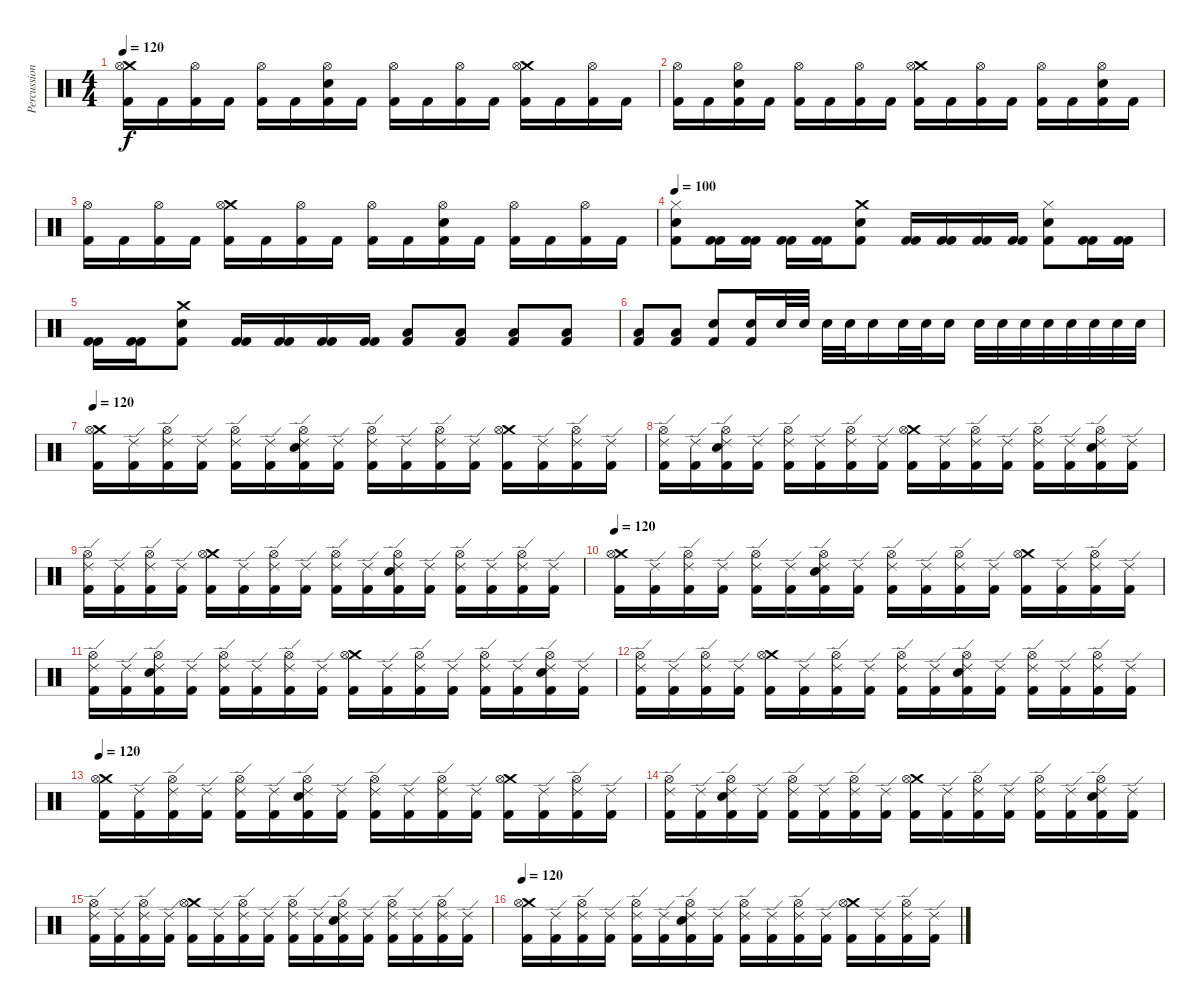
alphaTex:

\track ("Percussion" "Percussion") {instrument percussion}
\staff {score}
\articulation defaults
\ts (4 4)
\tempo 120
\clef neutral
\ks c
("Crash medium (hit)" "Hi-Hat (open)" "Kick (hit) 2").16{dy f} "Kick (hit) 2".16 ("Hi-Hat (open)" "Kick (hit) 2").16 "Kick (hit) 2".16 ("Hi-Hat (open)" "Kick (hit) 2").16 "Kick (hit) 2".16 ("Hi-Hat (open)" "Electric Snare (hit)" "Kick (hit) 2").16 "Kick (hit) 2".16 ("Hi-Hat (open)" "Kick (hit) 2").16 "Kick (hit) 2".16 ("Hi-Hat (open)" "Kick (hit) 2").16 "Kick (hit) 2".16 ("Crash medium (hit)" "Hi-Hat (open)" "Kick (hit) 2").16 "Kick (hit) 2".16 ("Hi-Hat (open)" "Kick (hit) 2").16 "Kick (hit) 2".16 |
("Hi-Hat (open)" "Kick (hit) 2").16 "Kick (hit) 2".16 ("Hi-Hat (open)" "Electric Snare (hit)" "Kick (hit) 2").16 "Kick (hit) 2".16 ("Hi-Hat (open)" "Kick (hit) 2").16 "Kick (hit) 2".16 ("Hi-Hat (open)" "Kick (hit) 2").16 "Kick (hit) 2".16 ("Crash medium (hit)" "Hi-Hat (open)" "Kick (hit) 2").16 "Kick (hit) 2".16 ("Hi-Hat (open)" "Kick (hit) 2").16 "Kick (hit) 2".16 ("Hi-Hat (open)" "Kick (hit) 2").16 "Kick (hit) 2".16 ("Hi-Hat (open)" "Electric Snare (hit)" "Kick (hit) 2").16 "Kick (hit) 2".16 |
("Hi-Hat (open)" "Kick (hit) 2").16 "Kick (hit) 2".16 ("Hi-Hat (open)" "Kick (hit) 2").16 "Kick (hit) 2".16 ("Crash medium (hit)" "Hi-Hat (open)" "Kick (hit) 2").16 "Kick (hit) 2".16 ("Hi-Hat (open)" "Kick (hit) 2").16 "Kick (hit) 2".16 ("Hi-Hat (open)" "Kick (hit) 2").16 "Kick (hit) 2".16 ("Hi-Hat (open)" "Electric Snare (hit)" "Kick (hit) 2").16 "Kick (hit) 2".16 ("Hi-Hat (open)" "Kick (hit) 2").16 "Kick (hit) 2".16 ("Hi-Hat (open)" "Kick (hit) 2").16 "Kick (hit) 2".16 |
\tempo 100
("Hi-Hat (closed)" "Electric Snare (hit)" "Kick (hit) 2").8 ("Kick (hit) 2" "Kick (hit) 2").16 ("Kick (hit) 2" "Kick (hit) 2").16 ("Kick (hit) 2" "Kick (hit) 2").16 ("Kick (hit) 2" "Kick (hit) 2").16 ("Crash medium (hit)" "Electric Snare (hit)" "Kick (hit) 2").8 ("Kick (hit) 2" "Kick (hit) 2").16 ("Kick (hit) 2" "Kick (hit) 2").16 ("Kick (hit) 2" "Kick (hit) 2").16 ("Kick (hit) 2" "Kick (hit) 2").16 ("Hi-Hat (closed)" "Electric Snare (hit)" "Kick (hit) 2").8 ("Kick (hit) 2" "Kick (hit) 2").16 ("Kick (hit) 2" "Kick (hit) 2").16 |
("Kick (hit) 2" "Kick (hit) 2").16 ("Kick (hit) 2" "Kick (hit) 2").16 ("Crash medium (hit)" "Electric Snare (hit)" "Kick (hit) 2").8 ("Kick (hit) 2" "Kick (hit) 2").16 ("Kick (hit) 2" "Kick (hit) 2").16 ("Kick (hit) 2" "Kick (hit) 2").16 ("Kick (hit) 2" "Kick (hit) 2").16 ("Low Floor Tom (hit)" "Kick (hit) 2").8 ("Low Floor Tom (hit)" "Kick (hit) 2").8 ("Low Floor Tom (hit)" "Kick (hit) 2").8 ("Low Floor Tom (hit)" "Kick (hit) 2").8 |
("Low Floor Tom (hit)" "Kick (hit) 2").8 ("Low Floor Tom (hit)" "Kick (hit) 2").8 ("Electric Snare (hit)" "Kick (hit) 2").8 ("Electric Snare (hit)" "Kick (hit) 2").16 "Electric Snare (hit)".32 "Electric Snare (hit)".32 "Electric Snare (hit)".32 "Electric Snare (hit)".32 "Electric Snare (hit)".16 "Electric Snare (hit)".32 "Electric Snare (hit)".32 "Electric Snare (hit)".16 "Electric Snare (hit)".32 "Electric Snare (hit)".32 "Electric Snare (hit)".32 "Electric Snare (hit)".32 "Electric Snare (hit)".32 "Electric Snare (hit)".32 "Electric Snare (hit)".32 "Electric Snare (hit)".32 |
\tempo 120
("Crash medium (hit)" "Hi-Hat (open)" "Kick (hit) 2").16 ("Ride (edge) 2" "Kick (hit) 2").16 ("Ride (edge) 2" "Hi-Hat (open)" "Kick (hit) 2").16 ("Ride (edge) 2" "Kick (hit) 2").16 ("Ride (edge) 2" "Hi-Hat (open)" "Kick (hit) 2").16 ("Ride (edge) 2" "Kick (hit) 2").16 ("Ride (edge) 2" "Hi-Hat (open)" "Electric Snare (hit)" "Kick (hit) 2").16 ("Ride (edge) 2" "Kick (hit) 2").16 ("Ride (edge) 2" "Hi-Hat (open)" "Kick (hit) 2").16 ("Ride (edge) 2" "Kick (hit) 2").16 ("Ride (edge) 2" "Hi-Hat (open)" "Kick (hit) 2").16 ("Ride (edge) 2" "Kick (hit) 2").16 ("Crash medium (hit)" "Hi-Hat (open)" "Kick (hit) 2").16 ("Ride (edge) 2" "Kick (hit) 2").16 ("Ride (edge) 2" "Hi-Hat (open)" "Kick (hit) 2").16 ("Ride (edge) 2" "Kick (hit) 2").16 |
("Ride (edge) 2" "Hi-Hat (open)" "Kick (hit) 2").16 ("Ride (edge) 2" "Kick (hit) 2").16 ("Ride (edge) 2" "Hi-Hat (open)" "Electric Snare (hit)" "Kick (hit) 2").16 ("Ride (edge) 2" "Kick (hit) 2").16 ("Ride (edge) 2" "Hi-Hat (open)" "Kick (hit) 2").16 ("Ride (edge) 2" "Kick (hit) 2").16 ("Ride (edge) 2" "Hi-Hat (open)" "Kick (hit) 2").16 ("Ride (edge) 2" "Kick (hit) 2").16 ("Crash medium (hit)" "Hi-Hat (open)" "Kick (hit) 2").16 ("Ride (edge) 2" "Kick (hit) 2").16 ("Ride (edge) 2" "Hi-Hat (open)" "Kick (hit) 2").16 ("Ride (edge) 2" "Kick (hit) 2").16 ("Ride (edge) 2" "Hi-Hat (open)" "Kick (hit) 2").16 ("Ride (edge) 2" "Kick (hit) 2").16 ("Ride (edge) 2" "Hi-Hat (open)" "Electric Snare (hit)" "Kick (hit) 2").16 ("Ride (edge) 2" "Kick (hit) 2").16 |
("Ride (edge) 2" "Hi-Hat (open)" "Kick (hit) 2").16 ("Ride (edge) 2" "Kick (hit) 2").16 ("Ride (edge) 2" "Hi-Hat (open)" "Kick (hit) 2").16 ("Ride (edge) 2" "Kick (hit) 2").16 ("Crash medium (hit)" "Hi-Hat (open)" "Kick (hit) 2").16 ("Ride (edge) 2" "Kick (hit) 2").16 ("Ride (edge) 2" "Hi-Hat (open)" "Kick (hit) 2").16 ("Ride (edge) 2" "Kick (hit) 2").16 ("Ride (edge) 2" "Hi-Hat (open)" "Kick (hit) 2").16 ("Ride (edge) 2" "Kick (hit) 2").16 ("Ride (edge) 2" "Hi-Hat (open)" "Electric Snare (hit)" "Kick (hit) 2").16 ("Ride (edge) 2" "Kick (hit) 2").16 ("Ride (edge) 2" "Hi-Hat (open)" "Kick (hit) 2").16 ("Ride (edge) 2" "Kick (hit) 2").16 ("Ride (edge) 2" "Hi-Hat (open)" "Kick (hit) 2").16 ("Ride (edge) 2" "Kick (hit) 2").16 |
\tempo 120
("Crash medium (hit)" "Hi-Hat (open)" "Kick (hit) 2").16 ("Ride (edge) 2" "Kick (hit) 2").16 ("Ride (edge) 2" "Hi-Hat (open)" "Kick (hit) 2").16 ("Ride (edge) 2" "Kick (hit) 2").16 ("Ride (edge) 2" "Hi-Hat (open)" "Kick (hit) 2").16 ("Ride (edge) 2" "Kick (hit) 2").16 ("Ride (edge) 2" "Hi-Hat (open)" "Electric Snare (hit)" "Kick (hit) 2").16 ("Ride (edge) 2" "Kick (hit) 2").16 ("Ride (edge) 2" "Hi-Hat (open)" "Kick (hit) 2").16 ("Ride (edge) 2" "Kick (hit) 2").16 ("Ride (edge) 2" "Hi-Hat (open)" "Kick (hit) 2").16 ("Ride (edge) 2" "Kick (hit) 2").16 ("Crash medium (hit)" "Hi-Hat (open)" "Kick (hit) 2").16 ("Ride (edge) 2" "Kick (hit) 2").16 ("Ride (edge) 2" "Hi-Hat (open)" "Kick (hit) 2").16 ("Ride (edge) 2" "Kick (hit) 2").16 |
("Ride (edge) 2" "Hi-Hat (open)" "Kick (hit) 2").16 ("Ride (edge) 2" "Kick (hit) 2").16 ("Ride (edge) 2" "Hi-Hat (open)" "Electric Snare (hit)" "Kick (hit) 2").16 ("Ride (edge) 2" "Kick (hit) 2").16 ("Ride (edge) 2" "Hi-Hat (open)" "Kick (hit) 2").16 ("Ride (edge) 2" "Kick (hit) 2").16 ("Ride (edge) 2" "Hi-Hat (open)" "Kick (hit) 2").16 ("Ride (edge) 2" "Kick (hit) 2").16 ("Crash medium (hit)" "Hi-Hat (open)" "Kick (hit) 2").16 ("Ride (edge) 2" "Kick (hit) 2").16 ("Ride (edge) 2" "Hi-Hat (open)" "Kick (hit) 2").16 ("Ride (edge) 2" "Kick (hit) 2").16 ("Ride (edge) 2" "Hi-Hat (open)" "Kick (hit) 2").16 ("Ride (edge) 2" "Kick (hit) 2").16 ("Ride (edge) 2" "Hi-Hat (open)" "Electric Snare (hit)" "Kick (hit) 2").16 ("Ride (edge) 2" "Kick (hit) 2").16 |
("Ride (edge) 2" "Hi-Hat (open)" "Kick (hit) 2").16 ("Ride (edge) 2" "Kick (hit) 2").16 ("Ride (edge) 2" "Hi-Hat (open)" "Kick (hit) 2").16 ("Ride (edge) 2" "Kick (hit) 2").16 ("Crash medium (hit)" "Hi-Hat (open)" "Kick (hit) 2").16 ("Ride (edge) 2" "Kick (hit) 2").16 ("Ride (edge) 2" "Hi-Hat (open)" "Kick (hit) 2").16 ("Ride (edge) 2" "Kick (hit) 2").16 ("Ride (edge) 2" "Hi-Hat (open)" "Kick (hit) 2").16 ("Ride (edge) 2" "Kick (hit) 2").16 ("Ride (edge) 2" "Hi-Hat (open)" "Electric Snare (hit)" "Kick (hit) 2").16 ("Ride (edge) 2" "Kick (hit) 2").16 ("Ride (edge) 2" "Hi-Hat (open)" "Kick (hit) 2").16 ("Ride (edge) 2" "Kick (hit) 2").16 ("Ride (edge) 2" "Hi-Hat (open)" "Kick (hit) 2").16 ("Ride (edge) 2" "Kick (hit) 2").16 |
\tempo 120
("Crash medium (hit)" "Hi-Hat (open)" "Kick (hit) 2").16 ("Ride (edge) 2" "Kick (hit) 2").16 ("Ride (edge) 2" "Hi-Hat (open)" "Kick (hit) 2").16 ("Ride (edge) 2" "Kick (hit) 2").16 ("Ride (edge) 2" "Hi-Hat (open)" "Kick (hit) 2").16 ("Ride (edge) 2" "Kick (hit) 2").16 ("Ride (edge) 2" "Hi-Hat (open)" "Electric Snare (hit)" "Kick (hit) 2").16 ("Ride (edge) 2" "Kick (hit) 2").16 ("Ride (edge) 2" "Hi-Hat (open)" "Kick (hit) 2").16 ("Ride (edge) 2" "Kick (hit) 2").16 ("Ride (edge) 2" "Hi-Hat (open)" "Kick (hit) 2").16 ("Ride (edge) 2" "Kick (hit) 2").16 ("Crash medium (hit)" "Hi-Hat (open)" "Kick (hit) 2").16 ("Ride (edge) 2" "Kick (hit) 2").16 ("Ride (edge) 2" "Hi-Hat (open)" "Kick (hit) 2").16 ("Ride (edge) 2" "Kick (hit) 2").16 |
("Ride (edge) 2" "Hi-Hat (open)" "Kick (hit) 2").16 ("Ride (edge) 2" "Kick (hit) 2").16 ("Ride (edge) 2" "Hi-Hat (open)" "Electric Snare (hit)" "Kick (hit) 2").16 ("Ride (edge) 2" "Kick (hit) 2").16 ("Ride (edge) 2" "Hi-Hat (open)" "Kick (hit) 2").16 ("Ride (edge) 2" "Kick (hit) 2").16 ("Ride (edge) 2" "Hi-Hat (open)" "Kick (hit) 2").16 ("Ride (edge) 2" "Kick (hit) 2").16 ("Crash medium (hit)" "Hi-Hat (open)" "Kick (hit) 2").16 ("Ride (edge) 2" "Kick (hit) 2").16 ("Ride (edge) 2" "Hi-Hat (open)" "Kick (hit) 2").16 ("Ride (edge) 2" "Kick (hit) 2").16 ("Ride (edge) 2" "Hi-Hat (open)" "Kick (hit) 2").16 ("Ride (edge) 2" "Kick (hit) 2").16 ("Ride (edge) 2" "Hi-Hat (open)" "Electric Snare (hit)" "Kick (hit) 2").16 ("Ride (edge) 2" "Kick (hit) 2").16 |
("Ride (edge) 2" "Hi-Hat (open)" "Kick (hit) 2").16 ("Ride (edge) 2" "Kick (hit) 2").16 ("Ride (edge) 2" "Hi-Hat (open)" "Kick (hit) 2").16 ("Ride (edge) 2" "Kick (hit) 2").16 ("Crash medium (hit)" "Hi-Hat (open)" "Kick (hit) 2").16 ("Ride (edge) 2" "Kick (hit) 2").16 ("Ride (edge) 2" "Hi-Hat (open)" "Kick (hit) 2").16 ("Ride (edge) 2" "Kick (hit) 2").16 ("Ride (edge) 2" "Hi-Hat (open)" "Kick (hit) 2").16 ("Ride (edge) 2" "Kick (hit) 2").16 ("Ride (edge) 2" "Hi-Hat (open)" "Electric Snare (hit)" "Kick (hit) 2").16 ("Ride (edge) 2" "Kick (hit) 2").16 ("Ride (edge) 2" "Hi-Hat (open)" "Kick (hit) 2").16 ("Ride (edge) 2" "Kick (hit) 2").16 ("Ride (edge) 2" "Hi-Hat (open)" "Kick (hit) 2").16 ("Ride (edge) 2" "Kick (hit) 2").16 |
\tempo 120
("Crash medium (hit)" "Hi-Hat (open)" "Kick (hit) 2").16 ("Ride (edge) 2" "Kick (hit) 2").16 ("Ride (edge) 2" "Hi-Hat (open)" "Kick (hit) 2").16 ("Ride (edge) 2" "Kick (hit) 2").16 ("Ride (edge) 2" "Hi-Hat (open)" "Kick (hit) 2").16 ("Ride (edge) 2" "Kick (hit) 2").16 ("Ride (edge) 2" "Hi-Hat (open)" "Electric Snare (hit)" "Kick (hit) 2").16 ("Ride (edge) 2" "Kick (hit) 2").16 ("Ride (edge) 2" "Hi-Hat (open)" "Kick (hit) 2").16 ("Ride (edge) 2" "Kick (hit) 2").16 ("Ride (edge) 2" "Hi-Hat (open)" "Kick (hit) 2").16 ("Ride (edge) 2" "Kick (hit) 2").16 ("Crash medium (hit)" "Hi-Hat (open)" "Kick (hit) 2").16 ("Ride (edge) 2" "Kick (hit) 2").16 ("Ride (edge) 2" "Hi-Hat (open)" "Kick (hit) 2").16 ("Ride (edge) 2" "Kick (hit) 2").16
